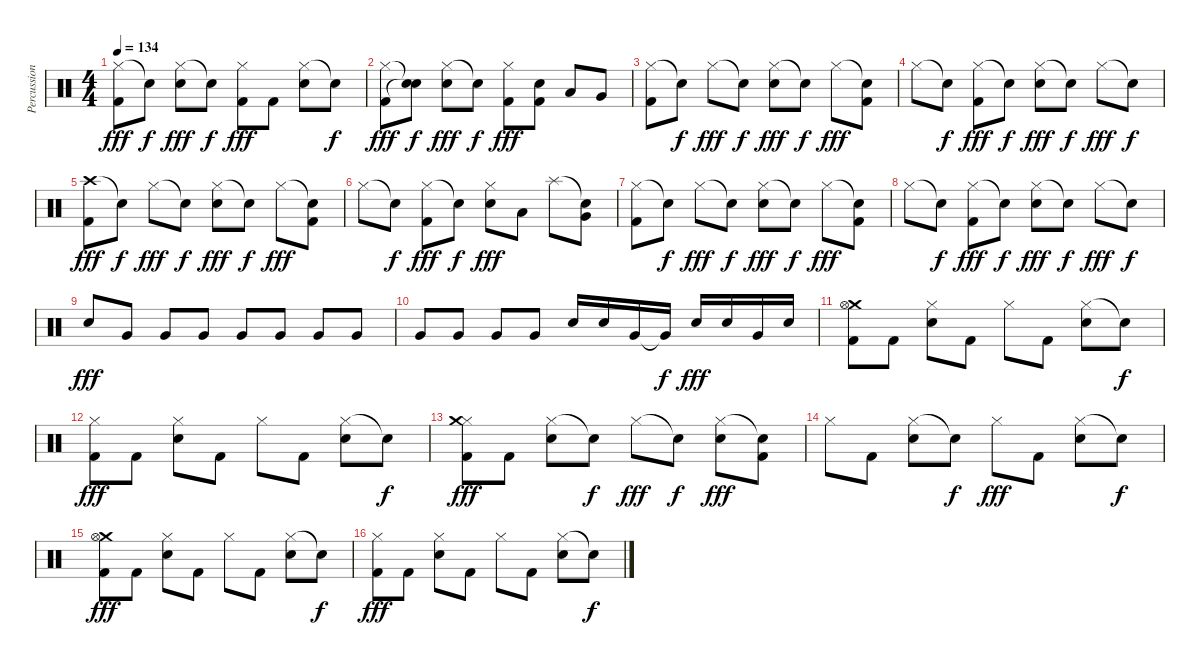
\track ("Percussion" "Percussion") {instrument percussion}
\staff {score}
\articulation defaults
\ts (4 4)
\tempo 134
\clef neutral
\ks c
("Hi-Hat (closed)" "Kick (hit) 2").8{dy fff} "Snare (hit)"{t}.8{dy f} ("Hi-Hat (closed)" "Snare (hit) 2").8{dy fff} "Snare (hit)"{t}.8{dy f} ("Hi-Hat (closed)" "Kick (hit) 2").8{dy fff} "Kick (hit) 2".8 ("Hi-Hat (closed)" "Snare (hit) 2").8 "Snare (hit)"{t}.8{dy f} |
("Hi-Hat (closed)" "Kick (hit) 2").8{dy fff} ("Snare (hit)"{t} "Snare (hit)"{t}).8{dy f} ("Hi-Hat (closed)" "Snare (hit) 2").8{dy fff} "Snare (hit)"{t}.8{dy f} ("Hi-Hat (closed)" "Kick (hit) 2").8{dy fff} ("Snare (hit) 2" "Kick (hit) 2").8 "Low Tom (hit)".8 "Very Low Tom (hit)".8 |
("Hi-Hat (closed)" "Kick (hit) 2").8 "Snare (hit)"{t}.8{dy f} "Hi-Hat (closed)".8{dy fff} "Snare (hit)"{t}.8{dy f} ("Hi-Hat (closed)" "Snare (hit) 2").8{dy fff} "Snare (hit)"{t}.8{dy f} "Hi-Hat (closed)".8{dy fff} ("Snare (hit)"{t} "Kick (hit) 2").8 |
"Hi-Hat (closed)".8 "Snare (hit)"{t}.8{dy f} ("Hi-Hat (closed)" "Kick (hit) 2").8{dy fff} "Snare (hit)"{t}.8{dy f} ("Hi-Hat (closed)" "Snare (hit) 2").8{dy fff} "Snare (hit)"{t}.8{dy f} "Hi-Hat (closed)".8{dy fff} "Snare (hit)"{t}.8{dy f} |
("Crash high (hit)" "Kick (hit) 2").8{dy fff} "Snare (hit)"{t}.8{dy f} "Hi-Hat (closed)".8{dy fff} "Snare (hit)"{t}.8{dy f} ("Hi-Hat (closed)" "Snare (hit) 2").8{dy fff} "Snare (hit)"{t}.8{dy f} "Hi-Hat (closed)".8{dy fff} ("Snare (hit)"{t} "Kick (hit) 2").8 |
"Hi-Hat (closed)".8 "Snare (hit)"{t}.8{dy f} ("Hi-Hat (closed)" "Kick (hit) 2").8{dy fff} "Snare (hit)"{t}.8{dy f} ("Hi-Hat (closed)" "Snare (hit) 2").8{dy fff} "Low Tom (hit)".8 "Splash (hit)".8 ("Snare (hit)"{t} "Very Low Tom (hit)").8 |
("Hi-Hat (closed)" "Kick (hit) 2").8 "Snare (hit)"{t}.8{dy f} "Hi-Hat (closed)".8{dy fff} "Snare (hit)"{t}.8{dy f} ("Hi-Hat (closed)" "Snare (hit) 2").8{dy fff} "Snare (hit)"{t}.8{dy f} "Hi-Hat (closed)".8{dy fff} ("Snare (hit)"{t} "Kick (hit) 2").8 |
"Hi-Hat (closed)".8 "Snare (hit)"{t}.8{dy f} ("Hi-Hat (closed)" "Kick (hit) 2").8{dy fff} "Snare (hit)"{t}.8{dy f} ("Hi-Hat (closed)" "Snare (hit) 2").8{dy fff} "Snare (hit)"{t}.8{dy f} "Hi-Hat (closed)".8{dy fff} "Snare (hit)"{t}.8{dy f} |
"Snare (hit) 2".8{dy fff} "Very Low Tom (hit)".8 "Very Low Tom (hit)".8 "Very Low Tom (hit)".8 "Very Low Tom (hit)".8 "Very Low Tom (hit)".8 "Very Low Tom (hit)".8 "Very Low Tom (hit)".8 |
"Very Low Tom (hit)".8 "Very Low Tom (hit)".8 "Very Low Tom (hit)".8 "Very Low Tom (hit)".8 "Snare (hit) 2".16 "Snare (hit) 2".16 "Very Low Tom (hit)".16 "Very Low Tom (hit)"{t}.16{dy f} "Snare (hit) 2".16{dy fff} "Snare (hit) 2".16 "Very Low Tom (hit)".16 "Snare (hit) 2".16 |
("Crash medium (hit)" "Hi-Hat (open)" "Kick (hit) 2").8 "Kick (hit) 2".8 ("Hi-Hat (closed)" "Snare (hit) 2").8 "Kick (hit) 2".8 "Hi-Hat (closed)".8 "Kick (hit) 2".8 ("Hi-Hat (closed)" "Snare (hit) 2").8 "Snare (hit)"{t}.8{dy f} |
("Hi-Hat (closed)" "Kick (hit) 2").8{dy fff} "Kick (hit) 2".8 ("Hi-Hat (closed)" "Snare (hit) 2").8 "Kick (hit) 2".8 "Hi-Hat (closed)".8 "Kick (hit) 2".8 ("Hi-Hat (closed)" "Snare (hit) 2").8 "Snare (hit)"{t}.8{dy f} |
("Hi-Hat (closed)" "Crash medium (hit)" "Kick (hit) 2").8{dy fff} "Kick (hit) 2".8 ("Hi-Hat (closed)" "Snare (hit) 2").8 "Snare (hit)"{t}.8{dy f} "Hi-Hat (closed)".8{dy fff} "Snare (hit)"{t}.8{dy f} ("Hi-Hat (closed)" "Snare (hit) 2").8{dy fff} ("Snare (hit)"{t} "Kick (hit) 2").8 |
"Hi-Hat (closed)".8 "Kick (hit) 2".8 ("Hi-Hat (closed)" "Snare (hit) 2").8 "Snare (hit)"{t}.8{dy f} "Hi-Hat (closed)".8{dy fff} "Kick (hit) 2".8 ("Hi-Hat (closed)" "Snare (hit) 2").8 "Snare (hit)"{t}.8{dy f} |
("Crash medium (hit)" "Hi-Hat (open)" "Kick (hit) 2").8{dy fff} "Kick (hit) 2".8 ("Hi-Hat (closed)" "Snare (hit) 2").8 "Kick (hit) 2".8 "Hi-Hat (closed)".8 "Kick (hit) 2".8 ("Hi-Hat (closed)" "Snare (hit) 2").8 "Snare (hit)"{t}.8{dy f} |
("Hi-Hat (closed)" "Kick (hit) 2").8{dy fff} "Kick (hit) 2".8 ("Hi-Hat (closed)" "Snare (hit) 2").8 "Kick (hit) 2".8 "Hi-Hat (closed)".8 "Kick (hit) 2".8 ("Hi-Hat (closed)" "Snare (hit) 2").8 "Snare (hit)"{t}.8{dy f}
